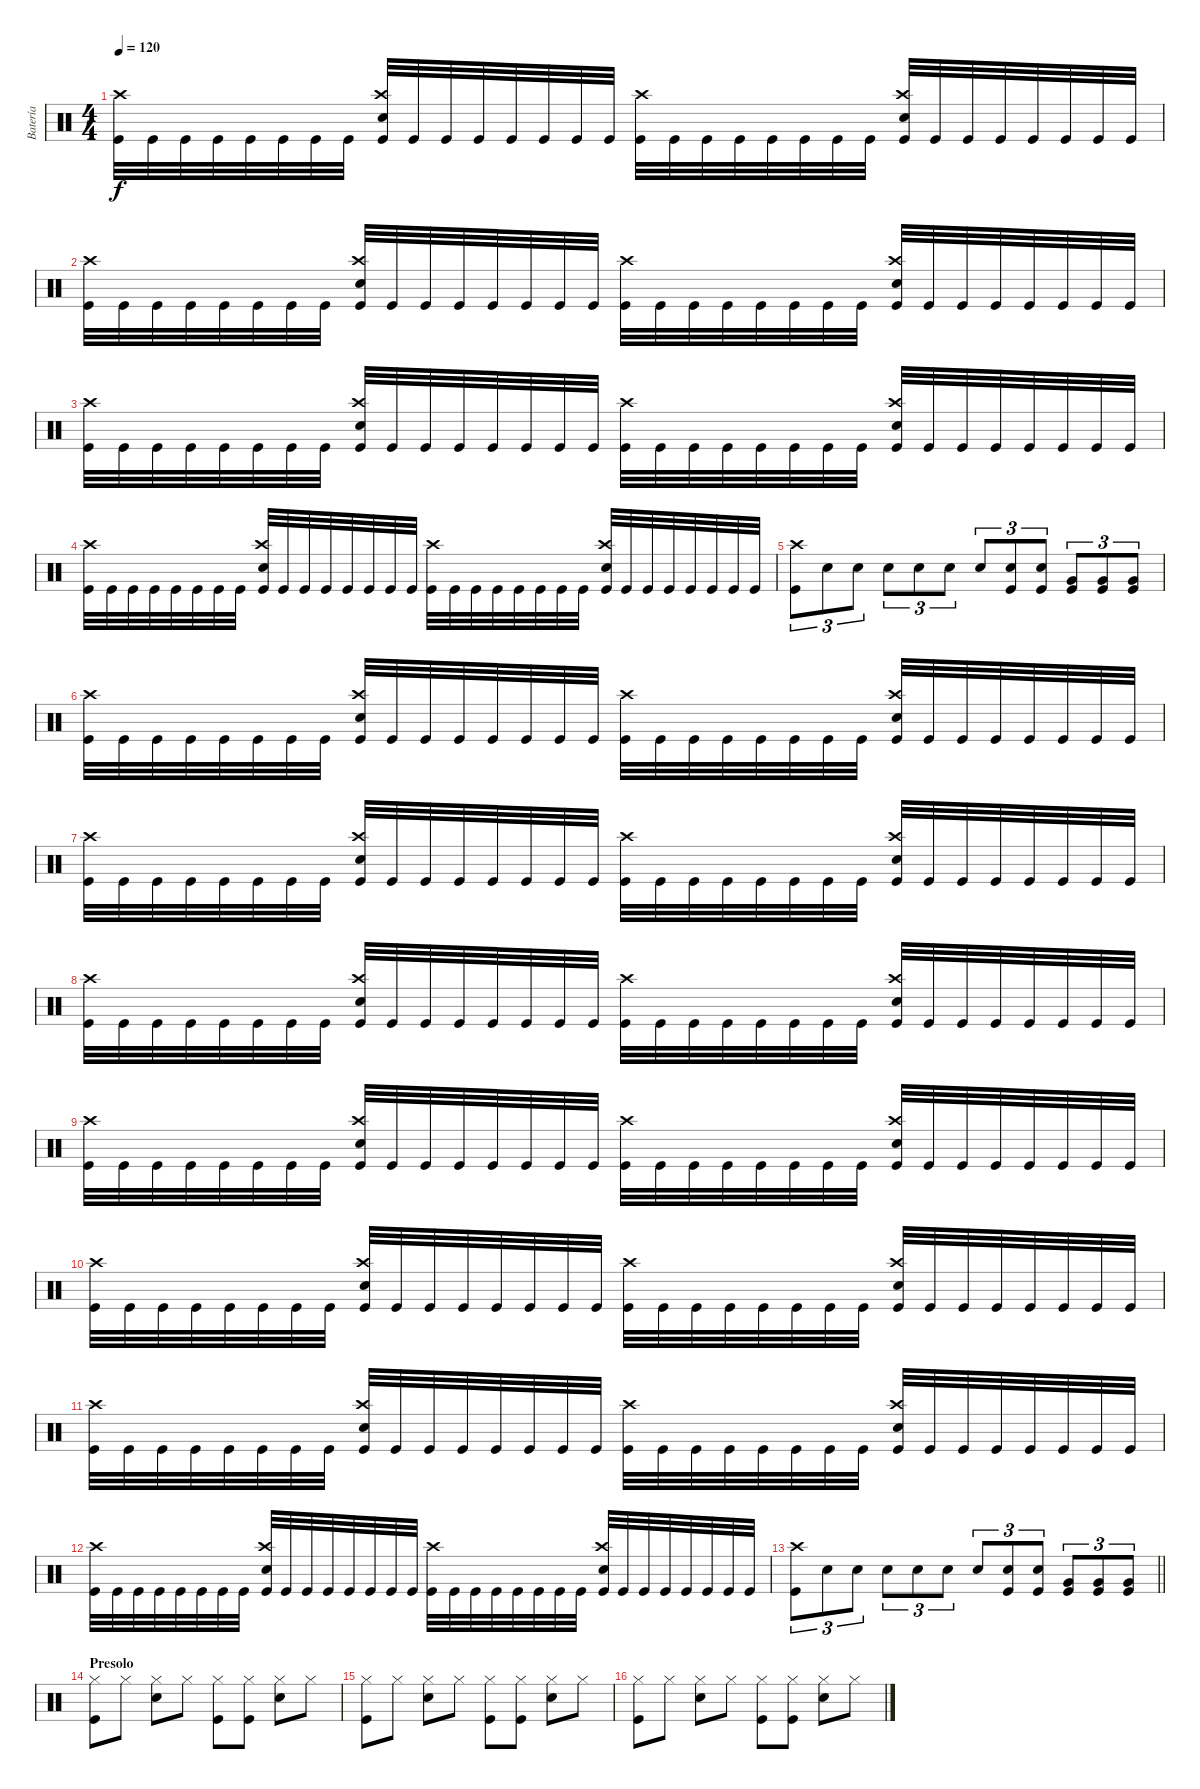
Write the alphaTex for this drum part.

\track ("Batería" "Batería") {instrument percussion}
\staff {score}
\articulation defaults
\ts (4 4)
\tempo 120
\clef neutral
\ks c
("Kick (hit)" "Crash high (hit)").32{dy f} "Kick (hit)".32 "Kick (hit)".32 "Kick (hit)".32 "Kick (hit)".32 "Kick (hit)".32 "Kick (hit)".32 "Kick (hit)".32 ("Kick (hit)" "Crash high (hit)" "Electric Snare (hit)").32 "Kick (hit)".32 "Kick (hit)".32 "Kick (hit)".32 "Kick (hit)".32 "Kick (hit)".32 "Kick (hit)".32 "Kick (hit)".32 ("Kick (hit)" "Crash high (hit)").32 "Kick (hit)".32 "Kick (hit)".32 "Kick (hit)".32 "Kick (hit)".32 "Kick (hit)".32 "Kick (hit)".32 "Kick (hit)".32 ("Kick (hit)" "Crash high (hit)" "Electric Snare (hit)").32 "Kick (hit)".32 "Kick (hit)".32 "Kick (hit)".32 "Kick (hit)".32 "Kick (hit)".32 "Kick (hit)".32 "Kick (hit)".32 |
("Kick (hit)" "Crash high (hit)").32 "Kick (hit)".32 "Kick (hit)".32 "Kick (hit)".32 "Kick (hit)".32 "Kick (hit)".32 "Kick (hit)".32 "Kick (hit)".32 ("Kick (hit)" "Crash high (hit)" "Electric Snare (hit)").32 "Kick (hit)".32 "Kick (hit)".32 "Kick (hit)".32 "Kick (hit)".32 "Kick (hit)".32 "Kick (hit)".32 "Kick (hit)".32 ("Kick (hit)" "Crash high (hit)").32 "Kick (hit)".32 "Kick (hit)".32 "Kick (hit)".32 "Kick (hit)".32 "Kick (hit)".32 "Kick (hit)".32 "Kick (hit)".32 ("Kick (hit)" "Crash high (hit)" "Electric Snare (hit)").32 "Kick (hit)".32 "Kick (hit)".32 "Kick (hit)".32 "Kick (hit)".32 "Kick (hit)".32 "Kick (hit)".32 "Kick (hit)".32 |
("Kick (hit)" "Crash high (hit)").32 "Kick (hit)".32 "Kick (hit)".32 "Kick (hit)".32 "Kick (hit)".32 "Kick (hit)".32 "Kick (hit)".32 "Kick (hit)".32 ("Kick (hit)" "Crash high (hit)" "Electric Snare (hit)").32 "Kick (hit)".32 "Kick (hit)".32 "Kick (hit)".32 "Kick (hit)".32 "Kick (hit)".32 "Kick (hit)".32 "Kick (hit)".32 ("Kick (hit)" "Crash high (hit)").32 "Kick (hit)".32 "Kick (hit)".32 "Kick (hit)".32 "Kick (hit)".32 "Kick (hit)".32 "Kick (hit)".32 "Kick (hit)".32 ("Kick (hit)" "Crash high (hit)" "Electric Snare (hit)").32 "Kick (hit)".32 "Kick (hit)".32 "Kick (hit)".32 "Kick (hit)".32 "Kick (hit)".32 "Kick (hit)".32 "Kick (hit)".32 |
("Kick (hit)" "Crash high (hit)").32 "Kick (hit)".32 "Kick (hit)".32 "Kick (hit)".32 "Kick (hit)".32 "Kick (hit)".32 "Kick (hit)".32 "Kick (hit)".32 ("Kick (hit)" "Crash high (hit)" "Electric Snare (hit)").32 "Kick (hit)".32 "Kick (hit)".32 "Kick (hit)".32 "Kick (hit)".32 "Kick (hit)".32 "Kick (hit)".32 "Kick (hit)".32 ("Kick (hit)" "Crash high (hit)").32 "Kick (hit)".32 "Kick (hit)".32 "Kick (hit)".32 "Kick (hit)".32 "Kick (hit)".32 "Kick (hit)".32 "Kick (hit)".32 ("Kick (hit)" "Crash high (hit)" "Electric Snare (hit)").32 "Kick (hit)".32 "Kick (hit)".32 "Kick (hit)".32 "Kick (hit)".32 "Kick (hit)".32 "Kick (hit)".32 "Kick (hit)".32 |
("Kick (hit)" "Crash high (hit)").8{tu (3 2)} "Electric Snare (hit)".8{tu (3 2)} "Electric Snare (hit)".8{tu (3 2)} "Electric Snare (hit)".8{tu (3 2)} "Electric Snare (hit)".8{tu (3 2)} "Electric Snare (hit)".8{tu (3 2)} "Electric Snare (hit)".8{tu (3 2)} ("Kick (hit)" "Electric Snare (hit)").8{tu (3 2)} ("Kick (hit)" "Electric Snare (hit)").8{tu (3 2)} ("Kick (hit)" "Very Low Tom (hit)").8{tu (3 2)} ("Kick (hit)" "Very Low Tom (hit)").8{tu (3 2)} ("Kick (hit)" "Very Low Tom (hit)").8{tu (3 2)} |
("Kick (hit)" "Crash high (hit)").32 "Kick (hit)".32 "Kick (hit)".32 "Kick (hit)".32 "Kick (hit)".32 "Kick (hit)".32 "Kick (hit)".32 "Kick (hit)".32 ("Kick (hit)" "Crash high (hit)" "Electric Snare (hit)").32 "Kick (hit)".32 "Kick (hit)".32 "Kick (hit)".32 "Kick (hit)".32 "Kick (hit)".32 "Kick (hit)".32 "Kick (hit)".32 ("Kick (hit)" "Crash high (hit)").32 "Kick (hit)".32 "Kick (hit)".32 "Kick (hit)".32 "Kick (hit)".32 "Kick (hit)".32 "Kick (hit)".32 "Kick (hit)".32 ("Kick (hit)" "Crash high (hit)" "Electric Snare (hit)").32 "Kick (hit)".32 "Kick (hit)".32 "Kick (hit)".32 "Kick (hit)".32 "Kick (hit)".32 "Kick (hit)".32 "Kick (hit)".32 |
("Kick (hit)" "Crash high (hit)").32 "Kick (hit)".32 "Kick (hit)".32 "Kick (hit)".32 "Kick (hit)".32 "Kick (hit)".32 "Kick (hit)".32 "Kick (hit)".32 ("Kick (hit)" "Crash high (hit)" "Electric Snare (hit)").32 "Kick (hit)".32 "Kick (hit)".32 "Kick (hit)".32 "Kick (hit)".32 "Kick (hit)".32 "Kick (hit)".32 "Kick (hit)".32 ("Kick (hit)" "Crash high (hit)").32 "Kick (hit)".32 "Kick (hit)".32 "Kick (hit)".32 "Kick (hit)".32 "Kick (hit)".32 "Kick (hit)".32 "Kick (hit)".32 ("Kick (hit)" "Crash high (hit)" "Electric Snare (hit)").32 "Kick (hit)".32 "Kick (hit)".32 "Kick (hit)".32 "Kick (hit)".32 "Kick (hit)".32 "Kick (hit)".32 "Kick (hit)".32 |
("Kick (hit)" "Crash high (hit)").32 "Kick (hit)".32 "Kick (hit)".32 "Kick (hit)".32 "Kick (hit)".32 "Kick (hit)".32 "Kick (hit)".32 "Kick (hit)".32 ("Kick (hit)" "Crash high (hit)" "Electric Snare (hit)").32 "Kick (hit)".32 "Kick (hit)".32 "Kick (hit)".32 "Kick (hit)".32 "Kick (hit)".32 "Kick (hit)".32 "Kick (hit)".32 ("Kick (hit)" "Crash high (hit)").32 "Kick (hit)".32 "Kick (hit)".32 "Kick (hit)".32 "Kick (hit)".32 "Kick (hit)".32 "Kick (hit)".32 "Kick (hit)".32 ("Kick (hit)" "Crash high (hit)" "Electric Snare (hit)").32 "Kick (hit)".32 "Kick (hit)".32 "Kick (hit)".32 "Kick (hit)".32 "Kick (hit)".32 "Kick (hit)".32 "Kick (hit)".32 |
("Kick (hit)" "Crash high (hit)").32 "Kick (hit)".32 "Kick (hit)".32 "Kick (hit)".32 "Kick (hit)".32 "Kick (hit)".32 "Kick (hit)".32 "Kick (hit)".32 ("Kick (hit)" "Crash high (hit)" "Electric Snare (hit)").32 "Kick (hit)".32 "Kick (hit)".32 "Kick (hit)".32 "Kick (hit)".32 "Kick (hit)".32 "Kick (hit)".32 "Kick (hit)".32 ("Kick (hit)" "Crash high (hit)").32 "Kick (hit)".32 "Kick (hit)".32 "Kick (hit)".32 "Kick (hit)".32 "Kick (hit)".32 "Kick (hit)".32 "Kick (hit)".32 ("Kick (hit)" "Crash high (hit)" "Electric Snare (hit)").32 "Kick (hit)".32 "Kick (hit)".32 "Kick (hit)".32 "Kick (hit)".32 "Kick (hit)".32 "Kick (hit)".32 "Kick (hit)".32 |
("Kick (hit)" "Crash high (hit)").32 "Kick (hit)".32 "Kick (hit)".32 "Kick (hit)".32 "Kick (hit)".32 "Kick (hit)".32 "Kick (hit)".32 "Kick (hit)".32 ("Kick (hit)" "Crash high (hit)" "Electric Snare (hit)").32 "Kick (hit)".32 "Kick (hit)".32 "Kick (hit)".32 "Kick (hit)".32 "Kick (hit)".32 "Kick (hit)".32 "Kick (hit)".32 ("Kick (hit)" "Crash high (hit)").32 "Kick (hit)".32 "Kick (hit)".32 "Kick (hit)".32 "Kick (hit)".32 "Kick (hit)".32 "Kick (hit)".32 "Kick (hit)".32 ("Kick (hit)" "Crash high (hit)" "Electric Snare (hit)").32 "Kick (hit)".32 "Kick (hit)".32 "Kick (hit)".32 "Kick (hit)".32 "Kick (hit)".32 "Kick (hit)".32 "Kick (hit)".32 |
("Kick (hit)" "Crash high (hit)").32 "Kick (hit)".32 "Kick (hit)".32 "Kick (hit)".32 "Kick (hit)".32 "Kick (hit)".32 "Kick (hit)".32 "Kick (hit)".32 ("Kick (hit)" "Crash high (hit)" "Electric Snare (hit)").32 "Kick (hit)".32 "Kick (hit)".32 "Kick (hit)".32 "Kick (hit)".32 "Kick (hit)".32 "Kick (hit)".32 "Kick (hit)".32 ("Kick (hit)" "Crash high (hit)").32 "Kick (hit)".32 "Kick (hit)".32 "Kick (hit)".32 "Kick (hit)".32 "Kick (hit)".32 "Kick (hit)".32 "Kick (hit)".32 ("Kick (hit)" "Crash high (hit)" "Electric Snare (hit)").32 "Kick (hit)".32 "Kick (hit)".32 "Kick (hit)".32 "Kick (hit)".32 "Kick (hit)".32 "Kick (hit)".32 "Kick (hit)".32 |
("Kick (hit)" "Crash high (hit)").32 "Kick (hit)".32 "Kick (hit)".32 "Kick (hit)".32 "Kick (hit)".32 "Kick (hit)".32 "Kick (hit)".32 "Kick (hit)".32 ("Kick (hit)" "Crash high (hit)" "Electric Snare (hit)").32 "Kick (hit)".32 "Kick (hit)".32 "Kick (hit)".32 "Kick (hit)".32 "Kick (hit)".32 "Kick (hit)".32 "Kick (hit)".32 ("Kick (hit)" "Crash high (hit)").32 "Kick (hit)".32 "Kick (hit)".32 "Kick (hit)".32 "Kick (hit)".32 "Kick (hit)".32 "Kick (hit)".32 "Kick (hit)".32 ("Kick (hit)" "Crash high (hit)" "Electric Snare (hit)").32 "Kick (hit)".32 "Kick (hit)".32 "Kick (hit)".32 "Kick (hit)".32 "Kick (hit)".32 "Kick (hit)".32 "Kick (hit)".32 |
\barLineRight lightlight
("Kick (hit)" "Crash high (hit)").8{tu (3 2)} "Electric Snare (hit)".8{tu (3 2)} "Electric Snare (hit)".8{tu (3 2)} "Electric Snare (hit)".8{tu (3 2)} "Electric Snare (hit)".8{tu (3 2)} "Electric Snare (hit)".8{tu (3 2)} "Electric Snare (hit)".8{tu (3 2)} ("Kick (hit)" "Electric Snare (hit)").8{tu (3 2)} ("Kick (hit)" "Electric Snare (hit)").8{tu (3 2)} ("Kick (hit)" "Very Low Tom (hit)").8{tu (3 2)} ("Kick (hit)" "Very Low Tom (hit)").8{tu (3 2)} ("Kick (hit)" "Very Low Tom (hit)").8{tu (3 2)} |
\section ("" "Presolo")
("Hi-Hat (closed)" "Kick (hit)").8 "Hi-Hat (closed)".8 ("Hi-Hat (closed)" "Electric Snare (hit)").8 "Hi-Hat (closed)".8 ("Hi-Hat (closed)" "Kick (hit)").8 ("Hi-Hat (closed)" "Kick (hit)").8 ("Hi-Hat (closed)" "Electric Snare (hit)").8 "Hi-Hat (closed)".8 |
("Hi-Hat (closed)" "Kick (hit)").8 "Hi-Hat (closed)".8 ("Hi-Hat (closed)" "Electric Snare (hit)").8 "Hi-Hat (closed)".8 ("Hi-Hat (closed)" "Kick (hit)").8 ("Hi-Hat (closed)" "Kick (hit)").8 ("Hi-Hat (closed)" "Electric Snare (hit)").8 "Hi-Hat (closed)".8 |
("Hi-Hat (closed)" "Kick (hit)").8 "Hi-Hat (closed)".8 ("Hi-Hat (closed)" "Electric Snare (hit)").8 "Hi-Hat (closed)".8 ("Hi-Hat (closed)" "Kick (hit)").8 ("Hi-Hat (closed)" "Kick (hit)").8 ("Hi-Hat (closed)" "Electric Snare (hit)").8 "Hi-Hat (closed)".8
